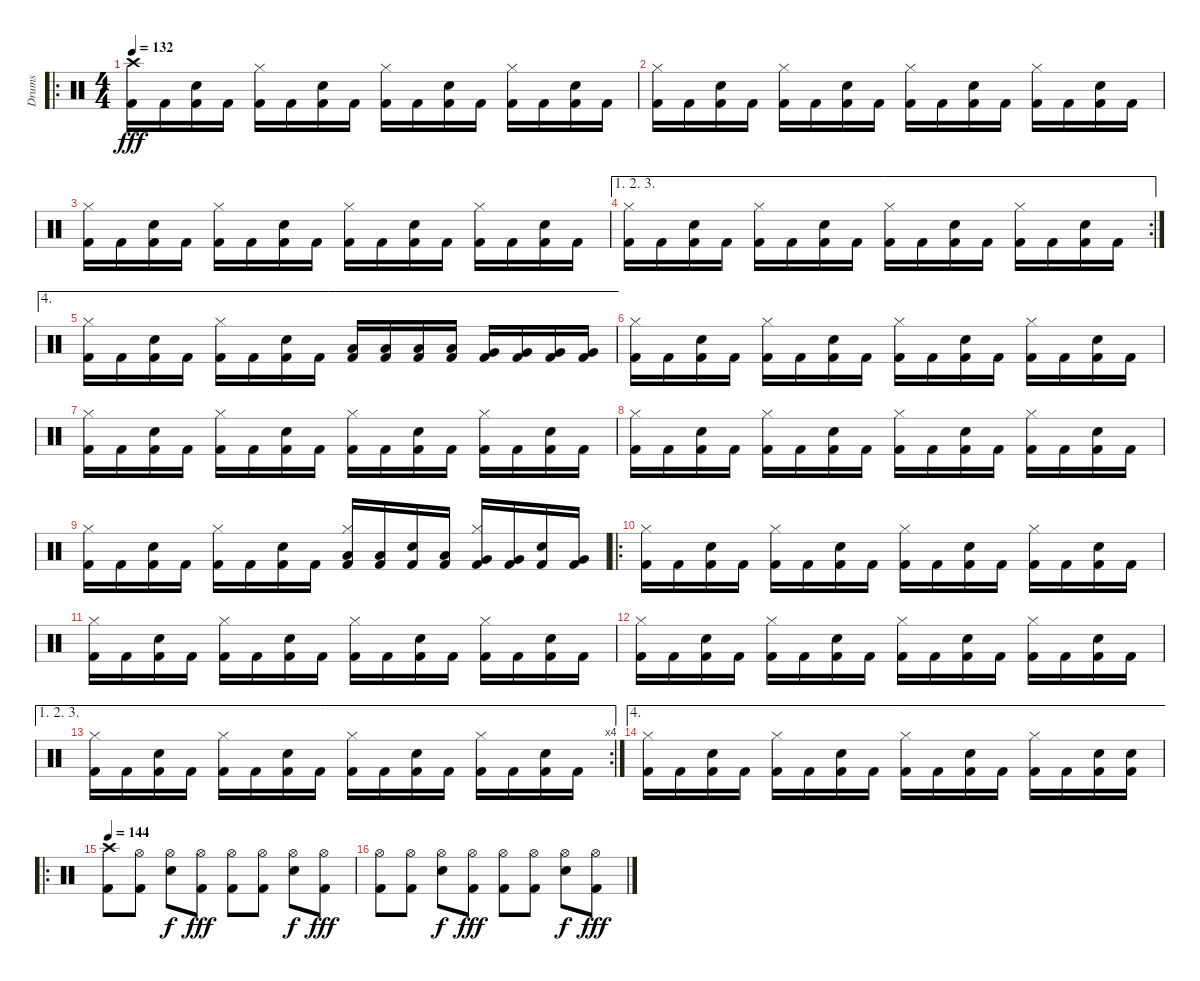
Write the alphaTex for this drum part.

\track ("Drums" "Drums") {instrument percussion}
\staff {score}
\articulation defaults
\ro
\ts (4 4)
\tempo 132
\clef neutral
\ks c
("Crash high (hit)" "Kick (hit) 2").16{dy fff} "Kick (hit) 2".16 ("Snare (hit) 2" "Kick (hit) 2").16 "Kick (hit) 2".16 ("Hi-Hat (closed)" "Kick (hit) 2").16 "Kick (hit) 2".16 ("Snare (hit) 2" "Kick (hit) 2").16 "Kick (hit) 2".16 ("Hi-Hat (closed)" "Kick (hit) 2").16 "Kick (hit) 2".16 ("Snare (hit) 2" "Kick (hit) 2").16 "Kick (hit) 2".16 ("Hi-Hat (closed)" "Kick (hit) 2").16 "Kick (hit) 2".16 ("Snare (hit) 2" "Kick (hit) 2").16 "Kick (hit) 2".16 |
("Hi-Hat (closed)" "Kick (hit) 2").16 "Kick (hit) 2".16 ("Snare (hit) 2" "Kick (hit) 2").16 "Kick (hit) 2".16 ("Hi-Hat (closed)" "Kick (hit) 2").16 "Kick (hit) 2".16 ("Snare (hit) 2" "Kick (hit) 2").16 "Kick (hit) 2".16 ("Hi-Hat (closed)" "Kick (hit) 2").16 "Kick (hit) 2".16 ("Snare (hit) 2" "Kick (hit) 2").16 "Kick (hit) 2".16 ("Hi-Hat (closed)" "Kick (hit) 2").16 "Kick (hit) 2".16 ("Snare (hit) 2" "Kick (hit) 2").16 "Kick (hit) 2".16 |
("Hi-Hat (closed)" "Kick (hit) 2").16 "Kick (hit) 2".16 ("Snare (hit) 2" "Kick (hit) 2").16 "Kick (hit) 2".16 ("Hi-Hat (closed)" "Kick (hit) 2").16 "Kick (hit) 2".16 ("Snare (hit) 2" "Kick (hit) 2").16 "Kick (hit) 2".16 ("Hi-Hat (closed)" "Kick (hit) 2").16 "Kick (hit) 2".16 ("Snare (hit) 2" "Kick (hit) 2").16 "Kick (hit) 2".16 ("Hi-Hat (closed)" "Kick (hit) 2").16 "Kick (hit) 2".16 ("Snare (hit) 2" "Kick (hit) 2").16 "Kick (hit) 2".16 |
\ae (1 2 3)
\rc 2
("Hi-Hat (closed)" "Kick (hit) 2").16 "Kick (hit) 2".16 ("Snare (hit) 2" "Kick (hit) 2").16 "Kick (hit) 2".16 ("Hi-Hat (closed)" "Kick (hit) 2").16 "Kick (hit) 2".16 ("Snare (hit) 2" "Kick (hit) 2").16 "Kick (hit) 2".16 ("Hi-Hat (closed)" "Kick (hit) 2").16 "Kick (hit) 2".16 ("Snare (hit) 2" "Kick (hit) 2").16 "Kick (hit) 2".16 ("Hi-Hat (closed)" "Kick (hit) 2").16 "Kick (hit) 2".16 ("Snare (hit) 2" "Kick (hit) 2").16 "Kick (hit) 2".16 |
\ae 4
("Hi-Hat (closed)" "Kick (hit) 2").16 "Kick (hit) 2".16 ("Snare (hit) 2" "Kick (hit) 2").16 "Kick (hit) 2".16 ("Hi-Hat (closed)" "Kick (hit) 2").16 "Kick (hit) 2".16 ("Snare (hit) 2" "Kick (hit) 2").16 "Kick (hit) 2".16 ("Low Tom (hit)" "Kick (hit) 2").16 ("Low Tom (hit)" "Kick (hit) 2").16 ("Low Tom (hit)" "Kick (hit) 2").16 ("Low Tom (hit)" "Kick (hit) 2").16 ("Very Low Tom (hit)" "Kick (hit) 2").16 ("Very Low Tom (hit)" "Kick (hit) 2").16 ("Very Low Tom (hit)" "Kick (hit) 2").16 ("Very Low Tom (hit)" "Kick (hit) 2").16 |
("Hi-Hat (closed)" "Kick (hit) 2").16 "Kick (hit) 2".16 ("Snare (hit) 2" "Kick (hit) 2").16 "Kick (hit) 2".16 ("Hi-Hat (closed)" "Kick (hit) 2").16 "Kick (hit) 2".16 ("Snare (hit) 2" "Kick (hit) 2").16 "Kick (hit) 2".16 ("Hi-Hat (closed)" "Kick (hit) 2").16 "Kick (hit) 2".16 ("Snare (hit) 2" "Kick (hit) 2").16 "Kick (hit) 2".16 ("Hi-Hat (closed)" "Kick (hit) 2").16 "Kick (hit) 2".16 ("Snare (hit) 2" "Kick (hit) 2").16 "Kick (hit) 2".16 |
("Hi-Hat (closed)" "Kick (hit) 2").16 "Kick (hit) 2".16 ("Snare (hit) 2" "Kick (hit) 2").16 "Kick (hit) 2".16 ("Hi-Hat (closed)" "Kick (hit) 2").16 "Kick (hit) 2".16 ("Snare (hit) 2" "Kick (hit) 2").16 "Kick (hit) 2".16 ("Hi-Hat (closed)" "Kick (hit) 2").16 "Kick (hit) 2".16 ("Snare (hit) 2" "Kick (hit) 2").16 "Kick (hit) 2".16 ("Hi-Hat (closed)" "Kick (hit) 2").16 "Kick (hit) 2".16 ("Snare (hit) 2" "Kick (hit) 2").16 "Kick (hit) 2".16 |
("Hi-Hat (closed)" "Kick (hit) 2").16 "Kick (hit) 2".16 ("Snare (hit) 2" "Kick (hit) 2").16 "Kick (hit) 2".16 ("Hi-Hat (closed)" "Kick (hit) 2").16 "Kick (hit) 2".16 ("Snare (hit) 2" "Kick (hit) 2").16 "Kick (hit) 2".16 ("Hi-Hat (closed)" "Kick (hit) 2").16 "Kick (hit) 2".16 ("Snare (hit) 2" "Kick (hit) 2").16 "Kick (hit) 2".16 ("Hi-Hat (closed)" "Kick (hit) 2").16 "Kick (hit) 2".16 ("Snare (hit) 2" "Kick (hit) 2").16 "Kick (hit) 2".16 |
("Hi-Hat (closed)" "Kick (hit) 2").16 "Kick (hit) 2".16 ("Snare (hit) 2" "Kick (hit) 2").16 "Kick (hit) 2".16 ("Hi-Hat (closed)" "Kick (hit) 2").16 "Kick (hit) 2".16 ("Snare (hit) 2" "Kick (hit) 2").16 "Kick (hit) 2".16 ("Hi-Hat (closed)" "Low Tom (hit)" "Kick (hit) 2").16 ("Low Tom (hit)" "Kick (hit) 2").16 ("Snare (hit) 2" "Kick (hit) 2").16 ("Low Tom (hit)" "Kick (hit) 2").16 ("Hi-Hat (closed)" "Very Low Tom (hit)" "Kick (hit) 2").16 ("Very Low Tom (hit)" "Kick (hit) 2").16 ("Snare (hit) 2" "Kick (hit) 2").16 ("Very Low Tom (hit)" "Kick (hit) 2").16 |
\ro
("Hi-Hat (closed)" "Kick (hit) 2").16 "Kick (hit) 2".16 ("Snare (hit) 2" "Kick (hit) 2").16 "Kick (hit) 2".16 ("Hi-Hat (closed)" "Kick (hit) 2").16 "Kick (hit) 2".16 ("Snare (hit) 2" "Kick (hit) 2").16 "Kick (hit) 2".16 ("Hi-Hat (closed)" "Kick (hit) 2").16 "Kick (hit) 2".16 ("Snare (hit) 2" "Kick (hit) 2").16 "Kick (hit) 2".16 ("Hi-Hat (closed)" "Kick (hit) 2").16 "Kick (hit) 2".16 ("Snare (hit) 2" "Kick (hit) 2").16 "Kick (hit) 2".16 |
("Hi-Hat (closed)" "Kick (hit) 2").16 "Kick (hit) 2".16 ("Snare (hit) 2" "Kick (hit) 2").16 "Kick (hit) 2".16 ("Hi-Hat (closed)" "Kick (hit) 2").16 "Kick (hit) 2".16 ("Snare (hit) 2" "Kick (hit) 2").16 "Kick (hit) 2".16 ("Hi-Hat (closed)" "Kick (hit) 2").16 "Kick (hit) 2".16 ("Snare (hit) 2" "Kick (hit) 2").16 "Kick (hit) 2".16 ("Hi-Hat (closed)" "Kick (hit) 2").16 "Kick (hit) 2".16 ("Snare (hit) 2" "Kick (hit) 2").16 "Kick (hit) 2".16 |
("Hi-Hat (closed)" "Kick (hit) 2").16 "Kick (hit) 2".16 ("Snare (hit) 2" "Kick (hit) 2").16 "Kick (hit) 2".16 ("Hi-Hat (closed)" "Kick (hit) 2").16 "Kick (hit) 2".16 ("Snare (hit) 2" "Kick (hit) 2").16 "Kick (hit) 2".16 ("Hi-Hat (closed)" "Kick (hit) 2").16 "Kick (hit) 2".16 ("Snare (hit) 2" "Kick (hit) 2").16 "Kick (hit) 2".16 ("Hi-Hat (closed)" "Kick (hit) 2").16 "Kick (hit) 2".16 ("Snare (hit) 2" "Kick (hit) 2").16 "Kick (hit) 2".16 |
\ae (1 2 3)
\rc 4
("Hi-Hat (closed)" "Kick (hit) 2").16 "Kick (hit) 2".16 ("Snare (hit) 2" "Kick (hit) 2").16 "Kick (hit) 2".16 ("Hi-Hat (closed)" "Kick (hit) 2").16 "Kick (hit) 2".16 ("Snare (hit) 2" "Kick (hit) 2").16 "Kick (hit) 2".16 ("Hi-Hat (closed)" "Kick (hit) 2").16 "Kick (hit) 2".16 ("Snare (hit) 2" "Kick (hit) 2").16 "Kick (hit) 2".16 ("Hi-Hat (closed)" "Kick (hit) 2").16 "Kick (hit) 2".16 ("Snare (hit) 2" "Kick (hit) 2").16 "Kick (hit) 2".16 |
\ae 4
("Hi-Hat (closed)" "Kick (hit) 2").16 "Kick (hit) 2".16 ("Snare (hit) 2" "Kick (hit) 2").16 "Kick (hit) 2".16 ("Hi-Hat (closed)" "Kick (hit) 2").16 "Kick (hit) 2".16 ("Snare (hit) 2" "Kick (hit) 2").16 "Kick (hit) 2".16 ("Hi-Hat (closed)" "Kick (hit) 2").16 "Kick (hit) 2".16 ("Snare (hit) 2" "Kick (hit) 2").16 "Kick (hit) 2".16 ("Hi-Hat (closed)" "Kick (hit) 2").16 "Kick (hit) 2".16 ("Snare (hit) 2" "Kick (hit) 2").16 ("Snare (hit) 2" "Kick (hit) 2").16 |
\ro
\tempo 144
("Crash high (hit)" "Kick (hit) 2").8 ("Hi-Hat (open)" "Kick (hit) 2").8 ("Hi-Hat (open)" "Snare (hit) 2").8{dy f} ("Hi-Hat (open)" "Kick (hit) 2").8{dy fff} ("Hi-Hat (open)" "Kick (hit) 2").8 ("Hi-Hat (open)" "Kick (hit) 2").8 ("Hi-Hat (open)" "Snare (hit) 2").8{dy f} ("Hi-Hat (open)" "Kick (hit) 2").8{dy fff} |
("Hi-Hat (open)" "Kick (hit) 2").8 ("Hi-Hat (open)" "Kick (hit) 2").8 ("Hi-Hat (open)" "Snare (hit) 2").8{dy f} ("Hi-Hat (open)" "Kick (hit) 2").8{dy fff} ("Hi-Hat (open)" "Kick (hit) 2").8 ("Hi-Hat (open)" "Kick (hit) 2").8 ("Hi-Hat (open)" "Snare (hit) 2").8{dy f} ("Hi-Hat (open)" "Kick (hit) 2").8{dy fff}
